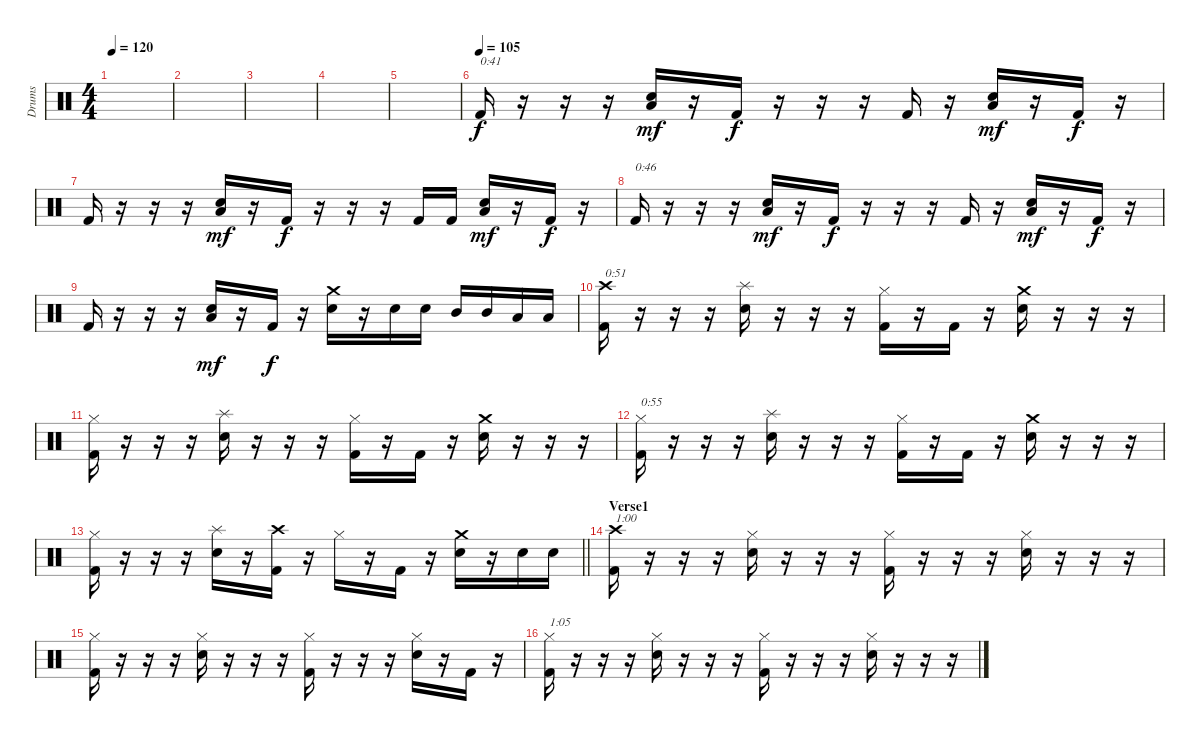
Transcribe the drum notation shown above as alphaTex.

\track ("Drums" "Drums") {instrument percussion}
\staff {score}
\articulation defaults
\ts (4 4)
\tempo 120
\clef neutral
\ks c
|
|
|
|
|
\tempo (105)
"Kick (hit) 2".16{txt "0:41"} r.16 r.16 r.16 ("Low Floor Tom (hit)" "Electric Snare (hit)").16{dy mf} r.16 "Kick (hit) 2".16{dy f} r.16 r.16 r.16 "Kick (hit) 2".16 r.16 ("Low Floor Tom (hit)" "Electric Snare (hit)").16{dy mf} r.16 "Kick (hit) 2".16{dy f} r.16 |
"Kick (hit) 2".16 r.16 r.16 r.16 ("Low Floor Tom (hit)" "Electric Snare (hit)").16{dy mf} r.16 "Kick (hit) 2".16{dy f} r.16 r.16 r.16 "Kick (hit) 2".16 "Kick (hit) 2".16 ("Low Floor Tom (hit)" "Electric Snare (hit)").16{dy mf} r.16 "Kick (hit) 2".16{dy f} r.16 |
"Kick (hit) 2".16{txt "0:46"} r.16 r.16 r.16 ("Low Floor Tom (hit)" "Electric Snare (hit)").16{dy mf} r.16 "Kick (hit) 2".16{dy f} r.16 r.16 r.16 "Kick (hit) 2".16 r.16 ("Low Floor Tom (hit)" "Electric Snare (hit)").16{dy mf} r.16 "Kick (hit) 2".16{dy f} r.16 |
"Kick (hit) 2".16 r.16 r.16 r.16 ("Low Floor Tom (hit)" "Electric Snare (hit)").16{dy mf} r.16 "Kick (hit) 2".16{dy f} r.16 ("Crash medium (hit)" "Electric Snare (hit)").16 r.16 "Electric Snare (hit)".16 "Electric Snare (hit)".16 "Mid Tom (hit)".16 "Mid Tom (hit)".16 "Low Tom (hit)".16 "Low Tom (hit)".16 |
("Crash high (hit)" "Kick (hit) 2").16{txt "0:51"} r.16 r.16 r.16 ("Splash (hit)" "Electric Snare (hit)").16 r.16 r.16 r.16 ("Hi-Hat (closed)" "Kick (hit) 2").16 r.16 "Kick (hit) 2".16 r.16 ("Crash medium (hit)" "Electric Snare (hit)").16 r.16 r.16 r.16 |
("Hi-Hat (closed)" "Kick (hit) 2").16 r.16 r.16 r.16 ("Splash (hit)" "Electric Snare (hit)").16 r.16 r.16 r.16 ("Hi-Hat (closed)" "Kick (hit) 2").16 r.16 "Kick (hit) 2".16 r.16 ("Crash medium (hit)" "Electric Snare (hit)").16 r.16 r.16 r.16 |
("Hi-Hat (closed)" "Kick (hit) 2").16{txt "0:55"} r.16 r.16 r.16 ("Splash (hit)" "Electric Snare (hit)").16 r.16 r.16 r.16 ("Hi-Hat (closed)" "Kick (hit) 2").16 r.16 "Kick (hit) 2".16 r.16 ("Crash medium (hit)" "Electric Snare (hit)").16 r.16 r.16 r.16 |
\barLineRight lightlight
("Hi-Hat (closed)" "Kick (hit) 2").16 r.16 r.16 r.16 ("Splash (hit)" "Electric Snare (hit)").16 r.16 ("Crash high (hit)" "Kick (hit) 2").16 r.16 "Hi-Hat (closed)".16 r.16 "Kick (hit) 2".16 r.16 ("Crash medium (hit)" "Electric Snare (hit)").16 r.16 "Electric Snare (hit)".16 "Electric Snare (hit)".16 |
\section ("" "Verse1")
("Crash high (hit)" "Kick (hit) 2").16{txt "1:00"} r.16 r.16 r.16 ("Hi-Hat (closed)" "Electric Snare (hit)").16 r.16 r.16 r.16 ("Hi-Hat (closed)" "Kick (hit) 2").16 r.16 r.16 r.16 ("Hi-Hat (closed)" "Electric Snare (hit)").16 r.16 r.16 r.16 |
("Hi-Hat (closed)" "Kick (hit) 2").16 r.16 r.16 r.16 ("Hi-Hat (closed)" "Electric Snare (hit)").16 r.16 r.16 r.16 ("Hi-Hat (closed)" "Kick (hit) 2").16 r.16 r.16 r.16 ("Hi-Hat (closed)" "Electric Snare (hit)").16 r.16 "Kick (hit) 2".16 r.16 |
("Hi-Hat (closed)" "Kick (hit) 2").16{txt "1:05"} r.16 r.16 r.16 ("Hi-Hat (closed)" "Electric Snare (hit)").16 r.16 r.16 r.16 ("Hi-Hat (closed)" "Kick (hit) 2").16 r.16 r.16 r.16 ("Hi-Hat (closed)" "Electric Snare (hit)").16 r.16 r.16 r.16
